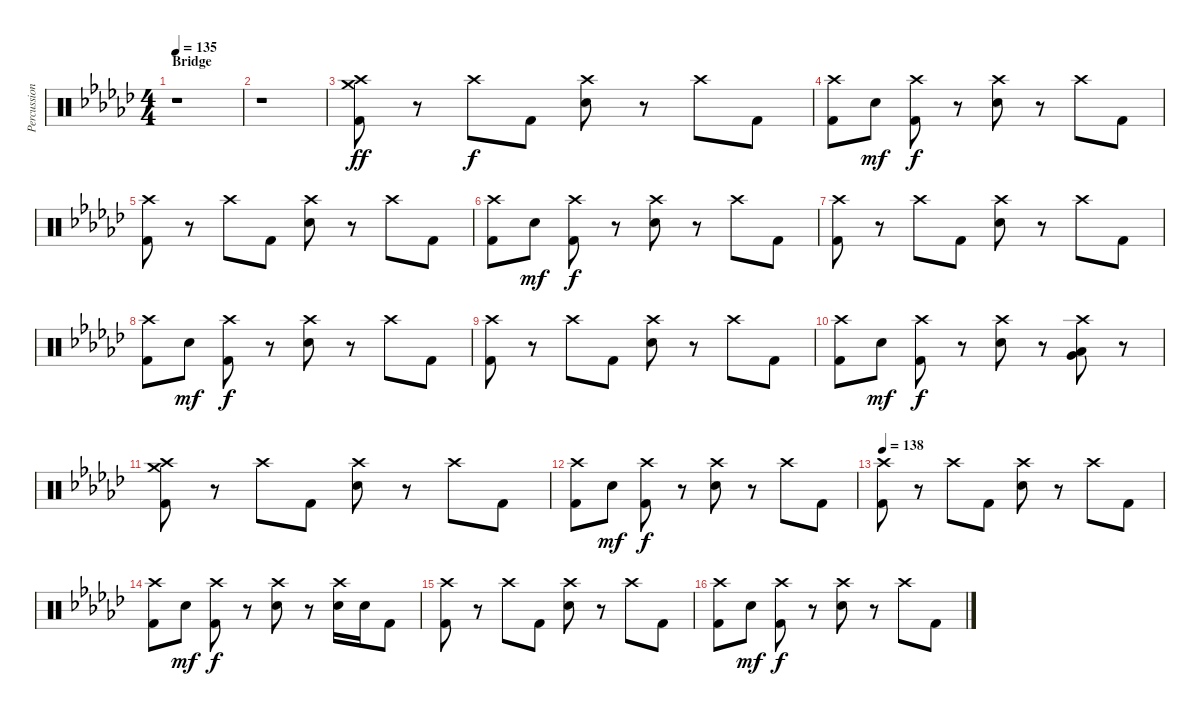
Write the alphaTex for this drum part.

\track ("Percussion" "Percussion") {instrument percussion}
\staff {score}
\articulation defaults
\ts (4 4)
\section ("" "Bridge")
\tempo 135
\clef neutral
\ks gb
r.1{dy f} |
r.1 |
("Crash medium (hit)" "Crash high (hit)" "Kick (hit) 2").8{dy ff} r.8 "Crash high (hit)".8{dy f} "Kick (hit) 2".8 ("Crash high (hit)" "Electric Snare (hit)").8 r.8 "Crash high (hit)".8 "Kick (hit) 2".8 |
("Crash high (hit)" "Kick (hit) 2").8 "Electric Snare (hit)".8{dy mf} ("Crash high (hit)" "Kick (hit) 2").8{dy f} r.8 ("Crash high (hit)" "Electric Snare (hit)").8 r.8 "Crash high (hit)".8 "Kick (hit) 2".8 |
("Crash high (hit)" "Kick (hit) 2").8 r.8 "Crash high (hit)".8 "Kick (hit) 2".8 ("Crash high (hit)" "Electric Snare (hit)").8 r.8 "Crash high (hit)".8 "Kick (hit) 2".8 |
("Crash high (hit)" "Kick (hit) 2").8 "Electric Snare (hit)".8{dy mf} ("Crash high (hit)" "Kick (hit) 2").8{dy f} r.8 ("Crash high (hit)" "Electric Snare (hit)").8 r.8 "Crash high (hit)".8 "Kick (hit) 2".8 |
("Crash high (hit)" "Kick (hit) 2").8 r.8 "Crash high (hit)".8 "Kick (hit) 2".8 ("Crash high (hit)" "Electric Snare (hit)").8 r.8 "Crash high (hit)".8 "Kick (hit) 2".8 |
("Crash high (hit)" "Kick (hit) 2").8 "Electric Snare (hit)".8{dy mf} ("Crash high (hit)" "Kick (hit) 2").8{dy f} r.8 ("Crash high (hit)" "Electric Snare (hit)").8 r.8 "Crash high (hit)".8 "Kick (hit) 2".8 |
("Crash high (hit)" "Kick (hit) 2").8 r.8 "Crash high (hit)".8 "Kick (hit) 2".8 ("Crash high (hit)" "Electric Snare (hit)").8 r.8 "Crash high (hit)".8 "Kick (hit) 2".8 |
("Crash high (hit)" "Kick (hit) 2").8 "Electric Snare (hit)".8{dy mf} ("Crash high (hit)" "Kick (hit) 2").8{dy f} r.8 ("Crash high (hit)" "Electric Snare (hit)").8 r.8 ("Crash high (hit)" "Low Tom (hit)" "Very Low Tom (hit)").8 r.8 |
("Crash medium (hit)" "Crash high (hit)" "Kick (hit) 2").8 r.8 "Crash high (hit)".8 "Kick (hit) 2".8 ("Crash high (hit)" "Electric Snare (hit)").8 r.8 "Crash high (hit)".8 "Kick (hit) 2".8 |
("Crash high (hit)" "Kick (hit) 2").8 "Electric Snare (hit)".8{dy mf} ("Crash high (hit)" "Kick (hit) 2").8{dy f} r.8 ("Crash high (hit)" "Electric Snare (hit)").8 r.8 "Crash high (hit)".8 "Kick (hit) 2".8 |
\tempo 138
("Crash high (hit)" "Kick (hit) 2").8 r.8 "Crash high (hit)".8 "Kick (hit) 2".8 ("Crash high (hit)" "Electric Snare (hit)").8 r.8 "Crash high (hit)".8 "Kick (hit) 2".8 |
("Crash high (hit)" "Kick (hit) 2").8 "Electric Snare (hit)".8{dy mf} ("Crash high (hit)" "Kick (hit) 2").8{dy f} r.8 ("Crash high (hit)" "Electric Snare (hit)").8 r.8 ("Crash high (hit)" "Electric Snare (hit)").16 "Electric Snare (hit)".16 "Kick (hit) 2".8 |
("Crash high (hit)" "Kick (hit) 2").8 r.8 "Crash high (hit)".8 "Kick (hit) 2".8 ("Crash high (hit)" "Electric Snare (hit)").8 r.8 "Crash high (hit)".8 "Kick (hit) 2".8 |
("Crash high (hit)" "Kick (hit) 2").8 "Electric Snare (hit)".8{dy mf} ("Crash high (hit)" "Kick (hit) 2").8{dy f} r.8 ("Crash high (hit)" "Electric Snare (hit)").8 r.8 "Crash high (hit)".8 "Kick (hit) 2".8
